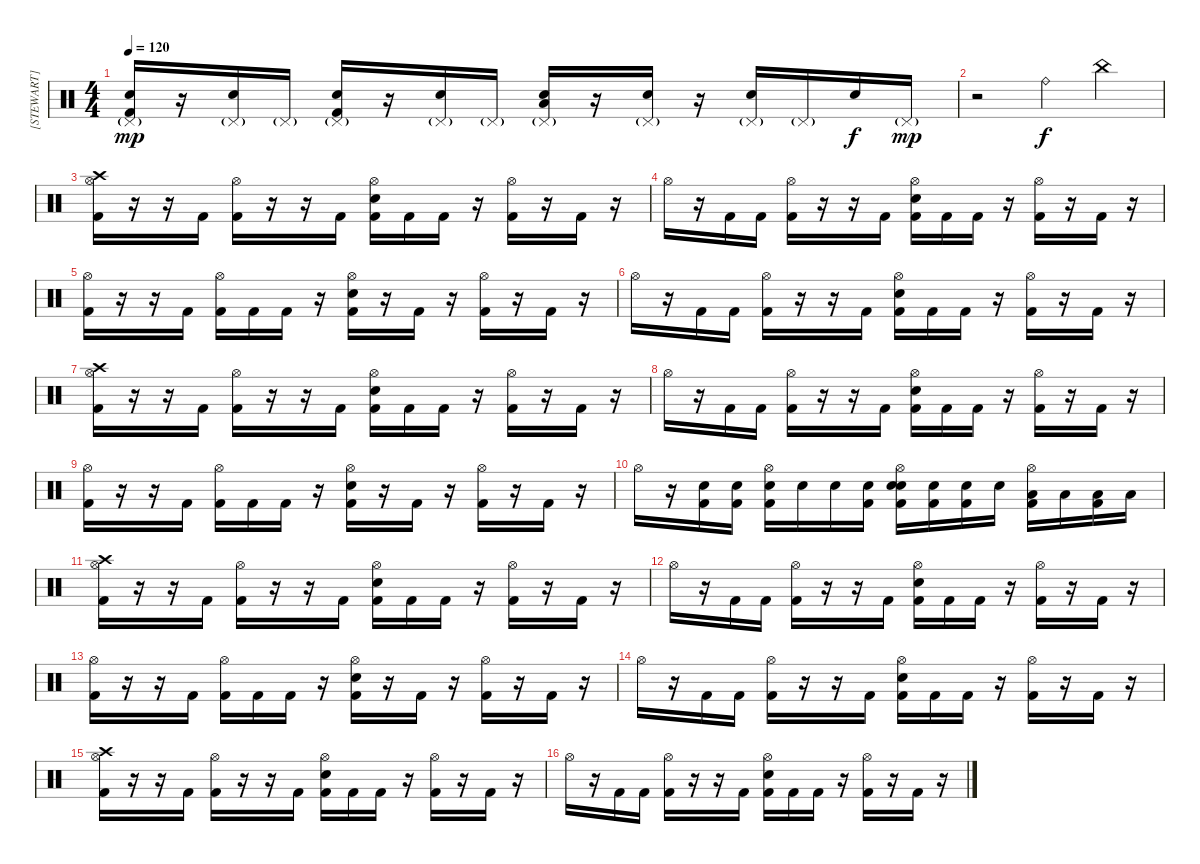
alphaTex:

\track ("[STEWART]" "[STEWART]") {instrument percussion}
\staff {score}
\articulation defaults
\ts (4 4)
\tempo 120
\clef neutral
\ks c
("Pedal Hi-Hat (hit)"{g} "Electric Snare (hit)" "Kick (hit) 2").16{dy mp} r.16 ("Pedal Hi-Hat (hit)"{g} "Electric Snare (hit)").16 "Pedal Hi-Hat (hit)"{g}.16 ("Pedal Hi-Hat (hit)"{g} "Electric Snare (hit)" "Kick (hit) 2").16 r.16 ("Pedal Hi-Hat (hit)"{g} "Electric Snare (hit)").16 "Pedal Hi-Hat (hit)"{g}.16 ("Pedal Hi-Hat (hit)"{g} "Low Tom (hit)" "Electric Snare (hit)").16 r.16 ("Pedal Hi-Hat (hit)"{g} "Electric Snare (hit)").16 r.16 ("Pedal Hi-Hat (hit)"{g} "Electric Snare (hit)").16 "Pedal Hi-Hat (hit)"{g}.16 "Electric Snare (hit)".16{dy f} "Pedal Hi-Hat (hit)"{g}.16{dy mp} |
r.2 "Ride (bell)".4{dy f} "China (hit)".4 |
("Crash high (hit)" "Kick (hit) 2" "Hi-Hat (open)").16 r.16 r.16 "Kick (hit) 2".16 ("Kick (hit) 2" "Hi-Hat (open)").16 r.16 r.16 "Kick (hit) 2".16 ("Electric Snare (hit)" "Kick (hit) 2" "Hi-Hat (open)").16 "Kick (hit) 2".16 "Kick (hit) 2".16 r.16 ("Kick (hit) 2" "Hi-Hat (open)").16 r.16 "Kick (hit) 2".16 r.16 |
"Hi-Hat (open)".16 r.16 "Kick (hit) 2".16 "Kick (hit) 2".16 ("Kick (hit) 2" "Hi-Hat (open)").16 r.16 r.16 "Kick (hit) 2".16 ("Electric Snare (hit)" "Kick (hit) 2" "Hi-Hat (open)").16 "Kick (hit) 2".16 "Kick (hit) 2".16 r.16 ("Kick (hit) 2" "Hi-Hat (open)").16 r.16 "Kick (hit) 2".16 r.16 |
("Kick (hit) 2" "Hi-Hat (open)").16 r.16 r.16 "Kick (hit) 2".16 ("Kick (hit) 2" "Hi-Hat (open)").16 "Kick (hit) 2".16 "Kick (hit) 2".16 r.16 ("Electric Snare (hit)" "Kick (hit) 2" "Hi-Hat (open)").16 r.16 "Kick (hit) 2".16 r.16 ("Kick (hit) 2" "Hi-Hat (open)").16 r.16 "Kick (hit) 2".16 r.16 |
"Hi-Hat (open)".16 r.16 "Kick (hit) 2".16 "Kick (hit) 2".16 ("Kick (hit) 2" "Hi-Hat (open)").16 r.16 r.16 "Kick (hit) 2".16 ("Electric Snare (hit)" "Kick (hit) 2" "Hi-Hat (open)").16 "Kick (hit) 2".16 "Kick (hit) 2".16 r.16 ("Kick (hit) 2" "Hi-Hat (open)").16 r.16 "Kick (hit) 2".16 r.16 |
("Crash high (hit)" "Kick (hit) 2" "Hi-Hat (open)").16 r.16 r.16 "Kick (hit) 2".16 ("Kick (hit) 2" "Hi-Hat (open)").16 r.16 r.16 "Kick (hit) 2".16 ("Electric Snare (hit)" "Kick (hit) 2" "Hi-Hat (open)").16 "Kick (hit) 2".16 "Kick (hit) 2".16 r.16 ("Kick (hit) 2" "Hi-Hat (open)").16 r.16 "Kick (hit) 2".16 r.16 |
"Hi-Hat (open)".16 r.16 "Kick (hit) 2".16 "Kick (hit) 2".16 ("Kick (hit) 2" "Hi-Hat (open)").16 r.16 r.16 "Kick (hit) 2".16 ("Electric Snare (hit)" "Kick (hit) 2" "Hi-Hat (open)").16 "Kick (hit) 2".16 "Kick (hit) 2".16 r.16 ("Kick (hit) 2" "Hi-Hat (open)").16 r.16 "Kick (hit) 2".16 r.16 |
("Kick (hit) 2" "Hi-Hat (open)").16 r.16 r.16 "Kick (hit) 2".16 ("Kick (hit) 2" "Hi-Hat (open)").16 "Kick (hit) 2".16 "Kick (hit) 2".16 r.16 ("Electric Snare (hit)" "Kick (hit) 2" "Hi-Hat (open)").16 r.16 "Kick (hit) 2".16 r.16 ("Kick (hit) 2" "Hi-Hat (open)").16 r.16 "Kick (hit) 2".16 r.16 |
"Hi-Hat (open)".16 r.16 ("Electric Snare (hit)" "Kick (hit) 2").16 ("Electric Snare (hit)" "Kick (hit) 2").16 ("Electric Snare (hit)" "Kick (hit) 2" "Hi-Hat (open)").16 "Electric Snare (hit)".16 "Electric Snare (hit)".16 ("Electric Snare (hit)" "Kick (hit) 2").16 ("Electric Snare (hit)" "Electric Snare (hit)" "Kick (hit) 2" "Hi-Hat (open)").16 ("Electric Snare (hit)" "Kick (hit) 2").16 ("Electric Snare (hit)" "Kick (hit) 2").16 "Electric Snare (hit)".16 ("Low Tom (hit)" "Kick (hit) 2" "Hi-Hat (open)").16 "Low Tom (hit)".16 ("Low Tom (hit)" "Kick (hit) 2").16 "Low Tom (hit)".16 |
("Crash high (hit)" "Kick (hit) 2" "Hi-Hat (open)").16 r.16 r.16 "Kick (hit) 2".16 ("Kick (hit) 2" "Hi-Hat (open)").16 r.16 r.16 "Kick (hit) 2".16 ("Electric Snare (hit)" "Kick (hit) 2" "Hi-Hat (open)").16 "Kick (hit) 2".16 "Kick (hit) 2".16 r.16 ("Kick (hit) 2" "Hi-Hat (open)").16 r.16 "Kick (hit) 2".16 r.16 |
"Hi-Hat (open)".16 r.16 "Kick (hit) 2".16 "Kick (hit) 2".16 ("Kick (hit) 2" "Hi-Hat (open)").16 r.16 r.16 "Kick (hit) 2".16 ("Electric Snare (hit)" "Kick (hit) 2" "Hi-Hat (open)").16 "Kick (hit) 2".16 "Kick (hit) 2".16 r.16 ("Kick (hit) 2" "Hi-Hat (open)").16 r.16 "Kick (hit) 2".16 r.16 |
("Kick (hit) 2" "Hi-Hat (open)").16 r.16 r.16 "Kick (hit) 2".16 ("Kick (hit) 2" "Hi-Hat (open)").16 "Kick (hit) 2".16 "Kick (hit) 2".16 r.16 ("Electric Snare (hit)" "Kick (hit) 2" "Hi-Hat (open)").16 r.16 "Kick (hit) 2".16 r.16 ("Kick (hit) 2" "Hi-Hat (open)").16 r.16 "Kick (hit) 2".16 r.16 |
"Hi-Hat (open)".16 r.16 "Kick (hit) 2".16 "Kick (hit) 2".16 ("Kick (hit) 2" "Hi-Hat (open)").16 r.16 r.16 "Kick (hit) 2".16 ("Electric Snare (hit)" "Kick (hit) 2" "Hi-Hat (open)").16 "Kick (hit) 2".16 "Kick (hit) 2".16 r.16 ("Kick (hit) 2" "Hi-Hat (open)").16 r.16 "Kick (hit) 2".16 r.16 |
("Crash high (hit)" "Kick (hit) 2" "Hi-Hat (open)").16 r.16 r.16 "Kick (hit) 2".16 ("Kick (hit) 2" "Hi-Hat (open)").16 r.16 r.16 "Kick (hit) 2".16 ("Electric Snare (hit)" "Kick (hit) 2" "Hi-Hat (open)").16 "Kick (hit) 2".16 "Kick (hit) 2".16 r.16 ("Kick (hit) 2" "Hi-Hat (open)").16 r.16 "Kick (hit) 2".16 r.16 |
"Hi-Hat (open)".16 r.16 "Kick (hit) 2".16 "Kick (hit) 2".16 ("Kick (hit) 2" "Hi-Hat (open)").16 r.16 r.16 "Kick (hit) 2".16 ("Electric Snare (hit)" "Kick (hit) 2" "Hi-Hat (open)").16 "Kick (hit) 2".16 "Kick (hit) 2".16 r.16 ("Kick (hit) 2" "Hi-Hat (open)").16 r.16 "Kick (hit) 2".16 r.16
